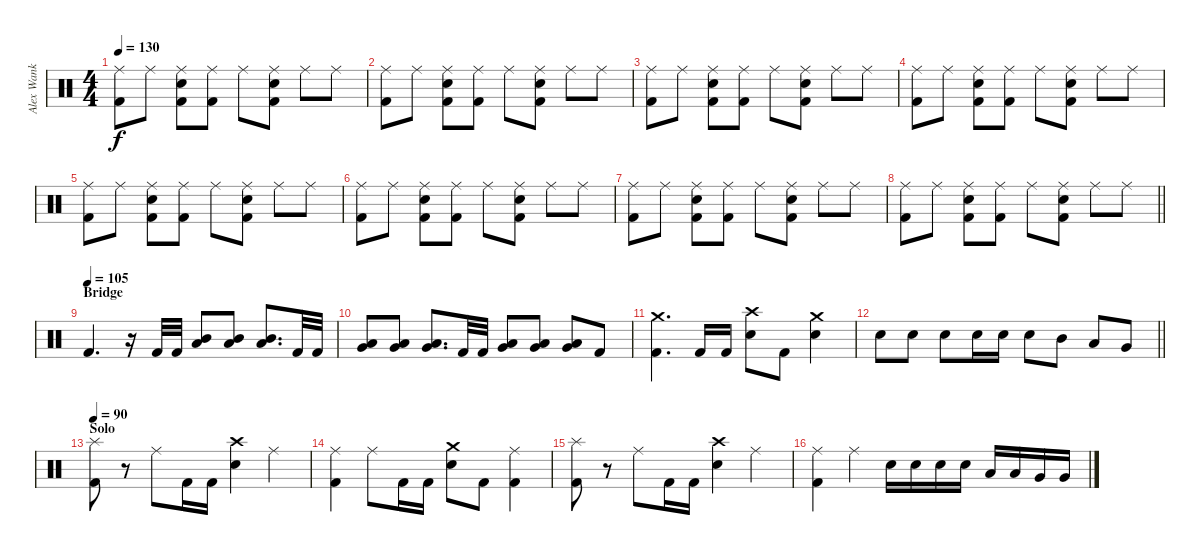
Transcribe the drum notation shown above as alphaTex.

\track ("Alex Wank" "Alex Wank") {instrument percussion}
\staff {score}
\articulation defaults
\ts (4 4)
\tempo 130
\clef neutral
\ks c
("Kick (hit) 2" "Ride (middle)").8{dy f} "Ride (middle)".8 ("Kick (hit) 2" "Snare (hit) 2" "Ride (middle)").8 ("Kick (hit) 2" "Ride (middle)").8 "Ride (middle)".8 ("Kick (hit) 2" "Snare (hit) 2" "Ride (middle)").8 "Ride (middle)".8 "Ride (middle)".8 |
("Kick (hit) 2" "Ride (middle)").8 "Ride (middle)".8 ("Kick (hit) 2" "Snare (hit) 2" "Ride (middle)").8 ("Kick (hit) 2" "Ride (middle)").8 "Ride (middle)".8 ("Kick (hit) 2" "Snare (hit) 2" "Ride (middle)").8 "Ride (middle)".8 "Ride (middle)".8 |
("Kick (hit) 2" "Ride (middle)").8 "Ride (middle)".8 ("Kick (hit) 2" "Snare (hit) 2" "Ride (middle)").8 ("Kick (hit) 2" "Ride (middle)").8 "Ride (middle)".8 ("Kick (hit) 2" "Snare (hit) 2" "Ride (middle)").8 "Ride (middle)".8 "Ride (middle)".8 |
("Kick (hit) 2" "Ride (middle)").8 "Ride (middle)".8 ("Kick (hit) 2" "Snare (hit) 2" "Ride (middle)").8 ("Kick (hit) 2" "Ride (middle)").8 "Ride (middle)".8 ("Kick (hit) 2" "Snare (hit) 2" "Ride (middle)").8 "Ride (middle)".8 "Ride (middle)".8 |
("Kick (hit) 2" "Ride (middle)").8 "Ride (middle)".8 ("Kick (hit) 2" "Snare (hit) 2" "Ride (middle)").8 ("Kick (hit) 2" "Ride (middle)").8 "Ride (middle)".8 ("Kick (hit) 2" "Snare (hit) 2" "Ride (middle)").8 "Ride (middle)".8 "Ride (middle)".8 |
("Kick (hit) 2" "Ride (middle)").8 "Ride (middle)".8 ("Kick (hit) 2" "Snare (hit) 2" "Ride (middle)").8 ("Kick (hit) 2" "Ride (middle)").8 "Ride (middle)".8 ("Kick (hit) 2" "Snare (hit) 2" "Ride (middle)").8 "Ride (middle)".8 "Ride (middle)".8 |
("Kick (hit) 2" "Ride (middle)").8 "Ride (middle)".8 ("Kick (hit) 2" "Snare (hit) 2" "Ride (middle)").8 ("Kick (hit) 2" "Ride (middle)").8 "Ride (middle)".8 ("Kick (hit) 2" "Snare (hit) 2" "Ride (middle)").8 "Ride (middle)".8 "Ride (middle)".8 |
\barLineRight lightlight
("Kick (hit) 2" "Ride (middle)").8 "Ride (middle)".8 ("Kick (hit) 2" "Snare (hit) 2" "Ride (middle)").8 ("Kick (hit) 2" "Ride (middle)").8 "Ride (middle)".8 ("Kick (hit) 2" "Snare (hit) 2" "Ride (middle)").8 "Ride (middle)".8 "Ride (middle)".8 |
\section ("" "Bridge")
\tempo (105)
"Kick (hit) 2".4{d} r.16 "Kick (hit) 2".32 "Kick (hit) 2".32 ("Mid Tom (hit)" "Low Tom (hit)").8 ("Mid Tom (hit)" "Low Tom (hit)").8 ("Mid Tom (hit)" "Low Tom (hit)").8{d} "Kick (hit) 2".32 "Kick (hit) 2".32 |
("Low Tom (hit)" "Very Low Tom (hit)").8 ("Low Tom (hit)" "Very Low Tom (hit)").8 ("Low Tom (hit)" "Very Low Tom (hit)").8{d} "Kick (hit) 2".32 "Kick (hit) 2".32 ("Very Low Tom (hit)" "Low Floor Tom (hit)").8 ("Very Low Tom (hit)" "Low Floor Tom (hit)").8 ("Very Low Tom (hit)" "Low Floor Tom (hit)").8 "Kick (hit) 2".8 |
("Kick (hit) 2" "Crash medium (hit)").4{d} "Kick (hit) 2".16 "Kick (hit) 2".16 ("Crash high (hit)" "Snare (hit) 2").8 "Kick (hit) 2".8 ("Crash medium (hit)" "Snare (hit) 2").4 |
\barLineRight lightlight "Snare (hit) 2".8 "Snare (hit) 2".8 "Snare (hit) 2".8 "Snare (hit) 2".16 "Snare (hit) 2".16 "Snare (hit) 2".8 "Mid Tom (hit)".8 "Low Tom (hit)".8 "Very Low Tom (hit)".8
|
\section ("" "Solo")
\tempo 90
("Kick (hit) 2" "Splash (hit)").8 r.8 "Ride (middle)".8 "Kick (hit) 2".16 "Kick (hit) 2".16 ("Crash high (hit)" "Snare (hit) 2").4 "Ride (middle)".4 |
("Kick (hit) 2" "Ride (middle)").4 "Ride (middle)".8 "Kick (hit) 2".16 "Kick (hit) 2".16 ("Crash medium (hit)" "Snare (hit) 2").8 "Kick (hit) 2".8 ("Kick (hit) 2" "Ride (middle)").4 |
("Kick (hit) 2" "Splash (hit)").8 r.8 "Ride (middle)".8 "Kick (hit) 2".16 "Kick (hit) 2".16 ("Crash high (hit)" "Snare (hit) 2").4 "Ride (middle)".4 |
("Kick (hit) 2" "Ride (middle)").4 "Ride (middle)".4 "Snare (hit) 2".16 "Snare (hit) 2".16 "Snare (hit) 2".16 "Snare (hit) 2".16 "Low Tom (hit)".16 "Low Tom (hit)".16 "Very Low Tom (hit)".16 "Very Low Tom (hit)".16
